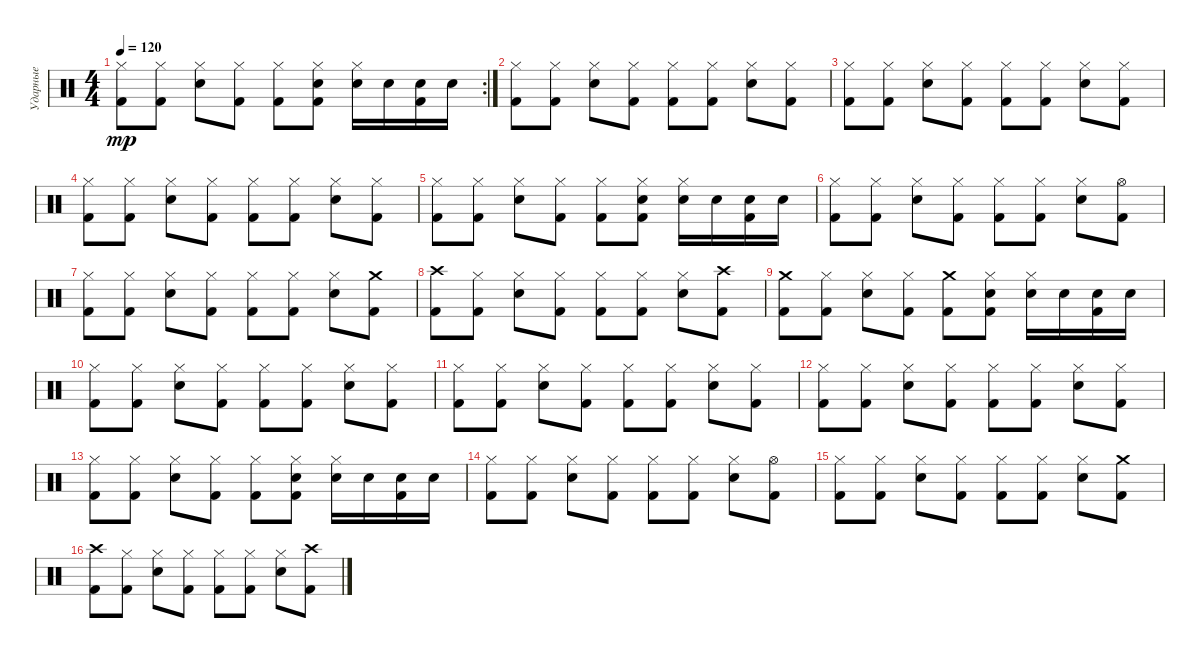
\track ("Ударные" "Ударные") {instrument percussion}
\staff {score}
\articulation defaults
\rc 2
\ts (4 4)
\tempo 120
\clef neutral
\ks c
("Kick (hit) 2" "Hi-Hat (closed)").8{dy mp} ("Kick (hit) 2" "Hi-Hat (closed)").8 ("Snare (hit) 2" "Hi-Hat (closed)").8 ("Kick (hit) 2" "Hi-Hat (closed)").8 ("Kick (hit) 2" "Hi-Hat (closed)").8 ("Kick (hit) 2" "Snare (hit) 2" "Hi-Hat (closed)").8 ("Snare (hit) 2" "Hi-Hat (closed)").16 "Snare (hit) 2".16 ("Kick (hit) 2" "Snare (hit) 2").16 "Snare (hit) 2".16 |
("Kick (hit) 2" "Hi-Hat (closed)").8 ("Kick (hit) 2" "Hi-Hat (closed)").8 ("Snare (hit) 2" "Hi-Hat (closed)").8 ("Kick (hit) 2" "Hi-Hat (closed)").8 ("Kick (hit) 2" "Hi-Hat (closed)").8 ("Kick (hit) 2" "Hi-Hat (closed)").8 ("Snare (hit) 2" "Hi-Hat (closed)").8 ("Kick (hit) 2" "Hi-Hat (closed)").8 |
("Kick (hit) 2" "Hi-Hat (closed)").8 ("Kick (hit) 2" "Hi-Hat (closed)").8 ("Snare (hit) 2" "Hi-Hat (closed)").8 ("Kick (hit) 2" "Hi-Hat (closed)").8 ("Kick (hit) 2" "Hi-Hat (closed)").8 ("Kick (hit) 2" "Hi-Hat (closed)").8 ("Snare (hit) 2" "Hi-Hat (closed)").8 ("Kick (hit) 2" "Hi-Hat (closed)").8 |
("Kick (hit) 2" "Hi-Hat (closed)").8 ("Kick (hit) 2" "Hi-Hat (closed)").8 ("Snare (hit) 2" "Hi-Hat (closed)").8 ("Kick (hit) 2" "Hi-Hat (closed)").8 ("Kick (hit) 2" "Hi-Hat (closed)").8 ("Kick (hit) 2" "Hi-Hat (closed)").8 ("Snare (hit) 2" "Hi-Hat (closed)").8 ("Kick (hit) 2" "Hi-Hat (closed)").8 |
("Kick (hit) 2" "Hi-Hat (closed)").8 ("Kick (hit) 2" "Hi-Hat (closed)").8 ("Snare (hit) 2" "Hi-Hat (closed)").8 ("Kick (hit) 2" "Hi-Hat (closed)").8 ("Kick (hit) 2" "Hi-Hat (closed)").8 ("Kick (hit) 2" "Snare (hit) 2" "Hi-Hat (closed)").8 ("Snare (hit) 2" "Hi-Hat (closed)").16 "Snare (hit) 2".16 ("Kick (hit) 2" "Snare (hit) 2").16 "Snare (hit) 2".16 |
("Kick (hit) 2" "Hi-Hat (closed)").8 ("Kick (hit) 2" "Hi-Hat (closed)").8 ("Snare (hit) 2" "Hi-Hat (closed)").8 ("Kick (hit) 2" "Hi-Hat (closed)").8 ("Kick (hit) 2" "Hi-Hat (closed)").8 ("Kick (hit) 2" "Hi-Hat (closed)").8 ("Snare (hit) 2" "Hi-Hat (closed)").8 ("Kick (hit) 2" "Hi-Hat (open)").8 |
("Kick (hit) 2" "Hi-Hat (closed)").8 ("Kick (hit) 2" "Hi-Hat (closed)").8 ("Snare (hit) 2" "Hi-Hat (closed)").8 ("Kick (hit) 2" "Hi-Hat (closed)").8 ("Kick (hit) 2" "Hi-Hat (closed)").8 ("Kick (hit) 2" "Hi-Hat (closed)").8 ("Snare (hit) 2" "Hi-Hat (closed)").8 ("Kick (hit) 2" "Crash medium (hit)").8 |
("Kick (hit) 2" "Crash high (hit)").8 ("Kick (hit) 2" "Hi-Hat (closed)").8 ("Snare (hit) 2" "Hi-Hat (closed)").8 ("Kick (hit) 2" "Hi-Hat (closed)").8 ("Kick (hit) 2" "Hi-Hat (closed)").8 ("Kick (hit) 2" "Hi-Hat (closed)").8 ("Snare (hit) 2" "Hi-Hat (closed)").8 ("Kick (hit) 2" "Crash high (hit)").8 |
("Kick (hit) 2" "Crash medium (hit)").8 ("Kick (hit) 2" "Hi-Hat (closed)").8 ("Snare (hit) 2" "Hi-Hat (closed)").8 ("Kick (hit) 2" "Hi-Hat (closed)").8 ("Kick (hit) 2" "Crash medium (hit)").8 ("Kick (hit) 2" "Snare (hit) 2" "Hi-Hat (closed)").8 ("Snare (hit) 2" "Hi-Hat (closed)").16 "Snare (hit) 2".16 ("Kick (hit) 2" "Snare (hit) 2").16 "Snare (hit) 2".16 |
("Kick (hit) 2" "Hi-Hat (closed)").8 ("Kick (hit) 2" "Hi-Hat (closed)").8 ("Snare (hit) 2" "Hi-Hat (closed)").8 ("Kick (hit) 2" "Hi-Hat (closed)").8 ("Kick (hit) 2" "Hi-Hat (closed)").8 ("Kick (hit) 2" "Hi-Hat (closed)").8 ("Snare (hit) 2" "Hi-Hat (closed)").8 ("Kick (hit) 2" "Hi-Hat (closed)").8 |
("Kick (hit) 2" "Hi-Hat (closed)").8 ("Kick (hit) 2" "Hi-Hat (closed)").8 ("Snare (hit) 2" "Hi-Hat (closed)").8 ("Kick (hit) 2" "Hi-Hat (closed)").8 ("Kick (hit) 2" "Hi-Hat (closed)").8 ("Kick (hit) 2" "Hi-Hat (closed)").8 ("Snare (hit) 2" "Hi-Hat (closed)").8 ("Kick (hit) 2" "Hi-Hat (closed)").8 |
("Kick (hit) 2" "Hi-Hat (closed)").8 ("Kick (hit) 2" "Hi-Hat (closed)").8 ("Snare (hit) 2" "Hi-Hat (closed)").8 ("Kick (hit) 2" "Hi-Hat (closed)").8 ("Kick (hit) 2" "Hi-Hat (closed)").8 ("Kick (hit) 2" "Hi-Hat (closed)").8 ("Snare (hit) 2" "Hi-Hat (closed)").8 ("Kick (hit) 2" "Hi-Hat (closed)").8 |
("Kick (hit) 2" "Hi-Hat (closed)").8 ("Kick (hit) 2" "Hi-Hat (closed)").8 ("Snare (hit) 2" "Hi-Hat (closed)").8 ("Kick (hit) 2" "Hi-Hat (closed)").8 ("Kick (hit) 2" "Hi-Hat (closed)").8 ("Kick (hit) 2" "Snare (hit) 2" "Hi-Hat (closed)").8 ("Snare (hit) 2" "Hi-Hat (closed)").16 "Snare (hit) 2".16 ("Kick (hit) 2" "Snare (hit) 2").16 "Snare (hit) 2".16 |
("Kick (hit) 2" "Hi-Hat (closed)").8 ("Kick (hit) 2" "Hi-Hat (closed)").8 ("Snare (hit) 2" "Hi-Hat (closed)").8 ("Kick (hit) 2" "Hi-Hat (closed)").8 ("Kick (hit) 2" "Hi-Hat (closed)").8 ("Kick (hit) 2" "Hi-Hat (closed)").8 ("Snare (hit) 2" "Hi-Hat (closed)").8 ("Kick (hit) 2" "Hi-Hat (open)").8 |
("Kick (hit) 2" "Hi-Hat (closed)").8 ("Kick (hit) 2" "Hi-Hat (closed)").8 ("Snare (hit) 2" "Hi-Hat (closed)").8 ("Kick (hit) 2" "Hi-Hat (closed)").8 ("Kick (hit) 2" "Hi-Hat (closed)").8 ("Kick (hit) 2" "Hi-Hat (closed)").8 ("Snare (hit) 2" "Hi-Hat (closed)").8 ("Kick (hit) 2" "Crash medium (hit)").8 |
("Kick (hit) 2" "Crash high (hit)").8 ("Kick (hit) 2" "Hi-Hat (closed)").8 ("Snare (hit) 2" "Hi-Hat (closed)").8 ("Kick (hit) 2" "Hi-Hat (closed)").8 ("Kick (hit) 2" "Hi-Hat (closed)").8 ("Kick (hit) 2" "Hi-Hat (closed)").8 ("Snare (hit) 2" "Hi-Hat (closed)").8 ("Kick (hit) 2" "Crash high (hit)").8
